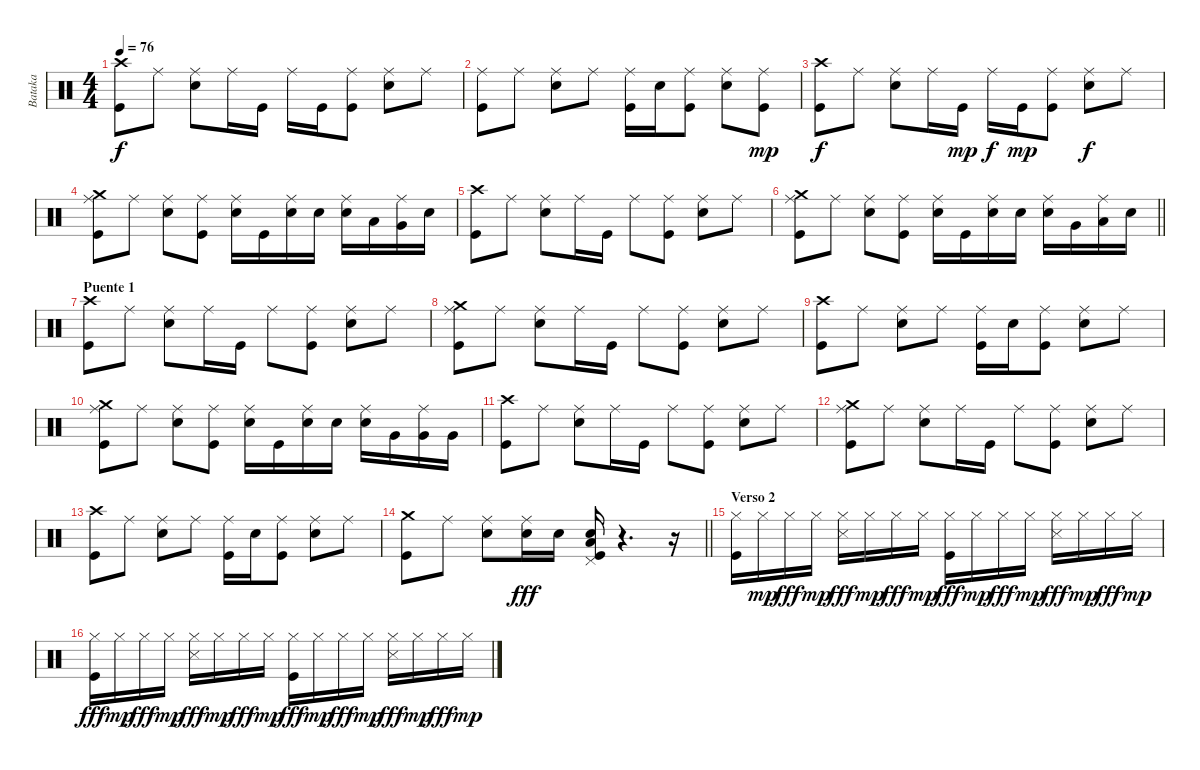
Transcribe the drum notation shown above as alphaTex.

\track ("Bataka" "Bataka") {instrument percussion}
\staff {score}
\articulation defaults
\ts (4 4)
\tempo 76
\clef neutral
\ks c
("Crash high (hit)" "Kick (hit)").8{dy f} "Ride (middle)".8 ("Ride (middle)" "Snare (hit) 2").8 "Ride (middle)".16 "Kick (hit)".16 "Ride (middle)".16 "Kick (hit)".16 ("Ride (middle)" "Kick (hit)").8 ("Ride (middle)" "Snare (hit) 2").8 "Ride (middle)".8 |
("Ride (middle)" "Kick (hit)").8 "Ride (middle)".8 ("Ride (middle)" "Snare (hit) 2").8 "Ride (middle)".8 ("Ride (middle)" "Kick (hit)").16 "Snare (hit) 2".16 ("Ride (middle)" "Kick (hit)").8 ("Ride (middle)" "Snare (hit) 2").8 ("Ride (middle)" "Kick (hit)").8{dy mp} |
("Kick (hit)" "Crash high (hit)").8{dy f} "Ride (middle)".8 ("Ride (middle)" "Snare (hit) 2").8 "Ride (middle)".16 "Kick (hit)".16{dy mp} "Ride (middle)".16{dy f} "Kick (hit)".16{dy mp} ("Ride (middle)" "Kick (hit)").8 ("Ride (middle)" "Snare (hit) 2").8{dy f} "Ride (middle)".8 |
("Ride (middle)" "Kick (hit)" "Crash medium (hit)").8 "Ride (middle)".8 ("Ride (middle)" "Snare (hit) 2").8 ("Ride (middle)" "Kick (hit)").8 ("Ride (middle)" "Snare (hit) 2").16 "Kick (hit)".16 ("Ride (middle)" "Snare (hit) 2").16 "Snare (hit) 2".16 ("Ride (middle)" "Snare (hit) 2").16 "Low Tom (hit)".16 ("Ride (middle)" "Very Low Tom (hit)").16 "Snare (hit) 2".16 |
("Crash high (hit)" "Kick (hit)").8 "Ride (middle)".8 ("Ride (middle)" "Snare (hit) 2").8 "Ride (middle)".16 "Kick (hit)".16 "Ride (middle)".8 ("Ride (middle)" "Kick (hit)").8 ("Ride (middle)" "Snare (hit) 2").8 "Ride (middle)".8 |
\barLineRight lightlight
("Ride (middle)" "Kick (hit)" "Crash medium (hit)").8 "Ride (middle)".8 ("Ride (middle)" "Snare (hit) 2").8 ("Ride (middle)" "Kick (hit)").8 ("Ride (middle)" "Snare (hit) 2").16 "Kick (hit)".16 ("Ride (middle)" "Snare (hit) 2").16 "Snare (hit) 2".16 ("Ride (middle)" "Snare (hit) 2").16 "Very Low Tom (hit)".16 ("Ride (middle)" "Low Floor Tom (hit)").16 "Snare (hit) 2".16 |
\section ("" "Puente 1")
("Crash high (hit)" "Kick (hit)").8 "Ride (middle)".8 ("Ride (middle)" "Snare (hit) 2").8 "Ride (middle)".16 "Kick (hit)".16 "Ride (middle)".8 ("Ride (middle)" "Kick (hit)").8 ("Ride (middle)" "Snare (hit) 2").8 "Ride (middle)".8 |
("Ride (middle)" "Kick (hit)" "Crash medium (hit)").8 "Ride (middle)".8 ("Ride (middle)" "Snare (hit) 2").8 "Ride (middle)".16 "Kick (hit)".16 "Ride (middle)".8 ("Ride (middle)" "Kick (hit)").8 ("Ride (middle)" "Snare (hit) 2").8 "Ride (middle)".8 |
("Kick (hit)" "Crash high (hit)").8 "Ride (middle)".8 ("Ride (middle)" "Snare (hit) 2").8 "Ride (middle)".8 ("Ride (middle)" "Kick (hit)").16 "Snare (hit) 2".16 ("Ride (middle)" "Kick (hit)").8 ("Ride (middle)" "Snare (hit) 2").8 "Ride (middle)".8 |
("Ride (middle)" "Kick (hit)" "Crash medium (hit)").8 "Ride (middle)".8 ("Ride (middle)" "Snare (hit) 2").8 ("Ride (middle)" "Kick (hit)").8 ("Ride (middle)" "Snare (hit) 2").16 "Kick (hit)".16 ("Ride (middle)" "Snare (hit) 2").16 "Snare (hit) 2".16 ("Ride (middle)" "Snare (hit) 2").16 "Very Low Tom (hit)".16 ("Ride (middle)" "Very Low Tom (hit)").16 "Very Low Tom (hit)".16 |
("Crash high (hit)" "Kick (hit)").8 "Ride (middle)".8 ("Ride (middle)" "Snare (hit) 2").8 "Ride (middle)".16 "Kick (hit)".16 "Ride (middle)".8 ("Ride (middle)" "Kick (hit)").8 ("Ride (middle)" "Snare (hit) 2").8 "Ride (middle)".8 |
("Ride (middle)" "Kick (hit)" "Crash medium (hit)").8 "Ride (middle)".8 ("Ride (middle)" "Snare (hit) 2").8 "Ride (middle)".16 "Kick (hit)".16 "Ride (middle)".8 ("Ride (middle)" "Kick (hit)").8 ("Ride (middle)" "Snare (hit) 2").8 "Ride (middle)".8 |
("Kick (hit)" "Crash high (hit)").8 "Ride (middle)".8 ("Ride (middle)" "Snare (hit) 2").8 "Ride (middle)".8 ("Ride (middle)" "Kick (hit)").16 "Snare (hit) 2".16 ("Ride (middle)" "Kick (hit)").8 ("Ride (middle)" "Snare (hit) 2").8 "Ride (middle)".8 |
\barLineRight lightlight
("Kick (hit)" "Crash medium (hit)").8 "Ride (middle)".8 ("Ride (middle)" "Snare (hit) 2").8 ("Ride (middle)" "Snare (hit) 2").16{dy fff} "Snare (hit) 2".16 ("Snare (hit) 2" "Pedal Hi-Hat (hit)" "Kick (hit)" "Low Floor Tom (hit)").16 r.4{d} r.16 |
\section ("" "Verso 2")
("Kick (hit)" "Hi-Hat (closed)").16 "Hi-Hat (closed)".16{dy mp} "Hi-Hat (closed)".16{dy fff} "Hi-Hat (closed)".16{dy mp} ("Snare (side stick) 3" "Hi-Hat (closed)").16{dy fff} "Hi-Hat (closed)".16{dy mp} "Hi-Hat (closed)".16{dy fff} "Hi-Hat (closed)".16{dy mp} ("Kick (hit)" "Hi-Hat (closed)").16{dy fff} "Hi-Hat (closed)".16{dy mp} "Hi-Hat (closed)".16{dy fff} "Hi-Hat (closed)".16{dy mp} ("Snare (side stick) 3" "Hi-Hat (closed)").16{dy fff} "Hi-Hat (closed)".16{dy mp} "Hi-Hat (closed)".16{dy fff} "Hi-Hat (closed)".16{dy mp} |
("Kick (hit)" "Hi-Hat (closed)").16{dy fff} "Hi-Hat (closed)".16{dy mp} "Hi-Hat (closed)".16{dy fff} "Hi-Hat (closed)".16{dy mp} ("Snare (side stick) 3" "Hi-Hat (closed)").16{dy fff} "Hi-Hat (closed)".16{dy mp} "Hi-Hat (closed)".16{dy fff} "Hi-Hat (closed)".16{dy mp} ("Kick (hit)" "Hi-Hat (closed)").16{dy fff} "Hi-Hat (closed)".16{dy mp} "Hi-Hat (closed)".16{dy fff} "Hi-Hat (closed)".16{dy mp} ("Snare (side stick) 3" "Hi-Hat (closed)").16{dy fff} "Hi-Hat (closed)".16{dy mp} "Hi-Hat (closed)".16{dy fff} "Hi-Hat (closed)".16{dy mp}
